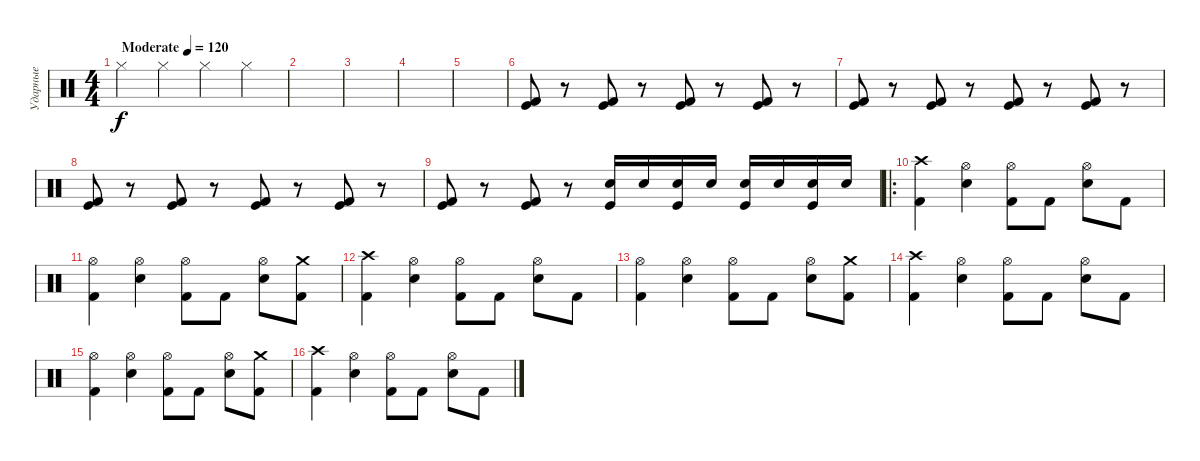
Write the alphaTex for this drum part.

\track ("Ударные" "Ударные") {solo instrument percussion}
\staff {score}
\articulation defaults
\ts (4 4)
\tempo (120 "Moderate")
\clef neutral
\ks c "Hi-Hat (closed)".4{dy f} "Hi-Hat (closed)".4 "Hi-Hat (closed)".4 "Hi-Hat (closed)".4
|
|
|
|
|
("Kick (hit) 2" "Kick (hit)").8 r.8 ("Kick (hit) 2" "Kick (hit)").8 r.8 ("Kick (hit) 2" "Kick (hit)").8 r.8 ("Kick (hit) 2" "Kick (hit)").8 r.8 |
("Kick (hit) 2" "Kick (hit)").8 r.8 ("Kick (hit) 2" "Kick (hit)").8 r.8 ("Kick (hit) 2" "Kick (hit)").8 r.8 ("Kick (hit) 2" "Kick (hit)").8 r.8 |
("Kick (hit) 2" "Kick (hit)").8 r.8 ("Kick (hit) 2" "Kick (hit)").8 r.8 ("Kick (hit) 2" "Kick (hit)").8 r.8 ("Kick (hit) 2" "Kick (hit)").8 r.8 |
("Kick (hit) 2" "Kick (hit)").8 r.8 ("Kick (hit) 2" "Kick (hit)").8 r.8 ("Snare (hit) 2" "Kick (hit)").16 "Snare (hit) 2".16 ("Snare (hit) 2" "Kick (hit)").16 "Snare (hit) 2".16 ("Snare (hit) 2" "Kick (hit)").16 "Snare (hit) 2".16 ("Snare (hit) 2" "Kick (hit)").16 "Snare (hit) 2".16 |
\ro
("Kick (hit) 2" "Crash high (hit)").4 ("Snare (hit) 2" "Hi-Hat (open)").4 ("Kick (hit) 2" "Hi-Hat (open)").8 "Kick (hit) 2".8 ("Snare (hit) 2" "Hi-Hat (open)").8 "Kick (hit) 2".8 |
("Kick (hit) 2" "Hi-Hat (open)").4 ("Snare (hit) 2" "Hi-Hat (open)").4 ("Kick (hit) 2" "Hi-Hat (open)").8 "Kick (hit) 2".8 ("Snare (hit) 2" "Hi-Hat (open)").8 ("Kick (hit) 2" "Crash medium (hit)").8 |
("Kick (hit) 2" "Crash high (hit)").4 ("Snare (hit) 2" "Hi-Hat (open)").4 ("Kick (hit) 2" "Hi-Hat (open)").8 "Kick (hit) 2".8 ("Snare (hit) 2" "Hi-Hat (open)").8 "Kick (hit) 2".8 |
("Kick (hit) 2" "Hi-Hat (open)").4 ("Snare (hit) 2" "Hi-Hat (open)").4 ("Kick (hit) 2" "Hi-Hat (open)").8 "Kick (hit) 2".8 ("Snare (hit) 2" "Hi-Hat (open)").8 ("Kick (hit) 2" "Crash medium (hit)").8 |
("Kick (hit) 2" "Crash high (hit)").4 ("Snare (hit) 2" "Hi-Hat (open)").4 ("Kick (hit) 2" "Hi-Hat (open)").8 "Kick (hit) 2".8 ("Snare (hit) 2" "Hi-Hat (open)").8 "Kick (hit) 2".8 |
("Kick (hit) 2" "Hi-Hat (open)").4 ("Snare (hit) 2" "Hi-Hat (open)").4 ("Kick (hit) 2" "Hi-Hat (open)").8 "Kick (hit) 2".8 ("Snare (hit) 2" "Hi-Hat (open)").8 ("Kick (hit) 2" "Crash medium (hit)").8 |
("Kick (hit) 2" "Crash high (hit)").4 ("Snare (hit) 2" "Hi-Hat (open)").4 ("Kick (hit) 2" "Hi-Hat (open)").8 "Kick (hit) 2".8 ("Snare (hit) 2" "Hi-Hat (open)").8 "Kick (hit) 2".8
